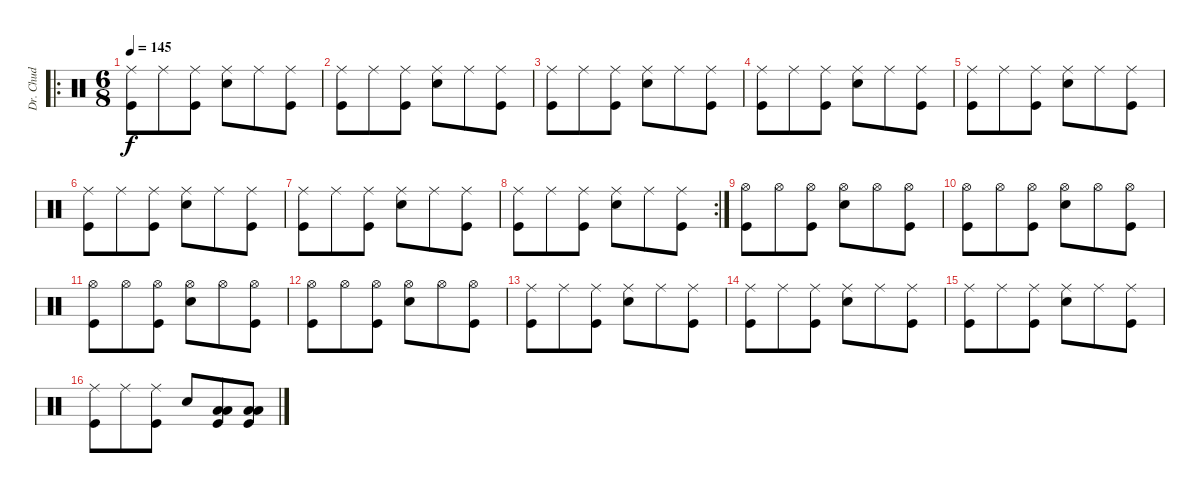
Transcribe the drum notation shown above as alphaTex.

\track ("Dr. Chud" "Dr. Chud") {instrument percussion}
\staff {score}
\articulation defaults
\ro
\ts (6 8)
\tempo 145
\clef neutral
\ks c
("Ride (middle)" "Kick (hit)").8{dy f} "Ride (middle)".8 ("Ride (middle)" "Kick (hit)").8 ("Ride (middle)" "Snare (hit) 2").8 "Ride (middle)".8 ("Ride (middle)" "Kick (hit)").8 |
("Ride (middle)" "Kick (hit)").8 "Ride (middle)".8 ("Ride (middle)" "Kick (hit)").8 ("Ride (middle)" "Snare (hit) 2").8 "Ride (middle)".8 ("Ride (middle)" "Kick (hit)").8 |
("Ride (middle)" "Kick (hit)").8 "Ride (middle)".8 ("Ride (middle)" "Kick (hit)").8 ("Ride (middle)" "Snare (hit) 2").8 "Ride (middle)".8 ("Ride (middle)" "Kick (hit)").8 |
("Ride (middle)" "Kick (hit)").8 "Ride (middle)".8 ("Ride (middle)" "Kick (hit)").8 ("Ride (middle)" "Snare (hit) 2").8 "Ride (middle)".8 ("Ride (middle)" "Kick (hit)").8 |
("Ride (middle)" "Kick (hit)").8 "Ride (middle)".8 ("Ride (middle)" "Kick (hit)").8 ("Ride (middle)" "Snare (hit) 2").8 "Ride (middle)".8 ("Ride (middle)" "Kick (hit)").8 |
("Ride (middle)" "Kick (hit)").8 "Ride (middle)".8 ("Ride (middle)" "Kick (hit)").8 ("Ride (middle)" "Snare (hit) 2").8 "Ride (middle)".8 ("Ride (middle)" "Kick (hit)").8 |
("Ride (middle)" "Kick (hit)").8 "Ride (middle)".8 ("Ride (middle)" "Kick (hit)").8 ("Ride (middle)" "Snare (hit) 2").8 "Ride (middle)".8 ("Ride (middle)" "Kick (hit)").8 |
\rc 2
("Ride (middle)" "Kick (hit)").8 "Ride (middle)".8 ("Ride (middle)" "Kick (hit)").8 ("Ride (middle)" "Snare (hit) 2").8 "Ride (middle)".8 ("Ride (middle)" "Kick (hit)").8 |
("Hi-Hat (open)" "Kick (hit)").8 "Hi-Hat (open)".8 ("Hi-Hat (open)" "Kick (hit)").8 ("Hi-Hat (open)" "Snare (hit) 2").8 "Hi-Hat (open)".8 ("Hi-Hat (open)" "Kick (hit)").8 |
("Hi-Hat (open)" "Kick (hit)").8 "Hi-Hat (open)".8 ("Hi-Hat (open)" "Kick (hit)").8 ("Hi-Hat (open)" "Snare (hit) 2").8 "Hi-Hat (open)".8 ("Hi-Hat (open)" "Kick (hit)").8 |
("Hi-Hat (open)" "Kick (hit)").8 "Hi-Hat (open)".8 ("Hi-Hat (open)" "Kick (hit)").8 ("Hi-Hat (open)" "Snare (hit) 2").8 "Hi-Hat (open)".8 ("Hi-Hat (open)" "Kick (hit)").8 |
("Hi-Hat (open)" "Kick (hit)").8 "Hi-Hat (open)".8 ("Hi-Hat (open)" "Kick (hit)").8 ("Hi-Hat (open)" "Snare (hit) 2").8 "Hi-Hat (open)".8 ("Hi-Hat (open)" "Kick (hit)").8 |
("Ride (middle)" "Kick (hit)").8 "Ride (middle)".8 ("Ride (middle)" "Kick (hit)").8 ("Ride (middle)" "Snare (hit) 2").8 "Ride (middle)".8 ("Ride (middle)" "Kick (hit)").8 |
("Ride (middle)" "Kick (hit)").8 "Ride (middle)".8 ("Ride (middle)" "Kick (hit)").8 ("Ride (middle)" "Snare (hit) 2").8 "Ride (middle)".8 ("Ride (middle)" "Kick (hit)").8 |
("Ride (middle)" "Kick (hit)").8 "Ride (middle)".8 ("Ride (middle)" "Kick (hit)").8 ("Ride (middle)" "Snare (hit) 2").8 "Ride (middle)".8 ("Ride (middle)" "Kick (hit)").8 |
("Ride (middle)" "Kick (hit)").8 "Ride (middle)".8 ("Ride (middle)" "Kick (hit)").8 "Snare (hit) 2".8 ("Low Tom (hit)" "Low Tom (hit)" "Kick (hit)").8 ("Low Floor Tom (hit)" "Low Floor Tom (hit)" "Kick (hit)").8
